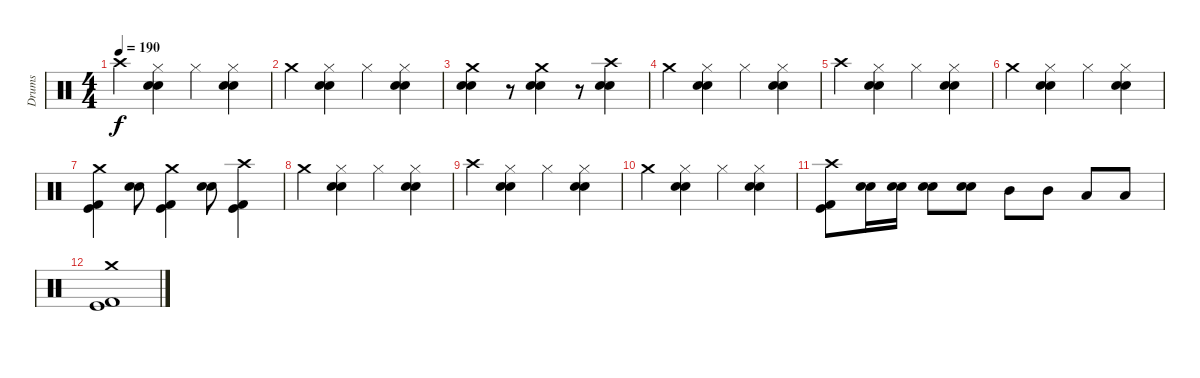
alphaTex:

\track ("Drums" "Drums") {instrument percussion}
\staff {score}
\articulation defaults
\ts (4 4)
\tempo 190
\clef neutral
\ks c "Crash high (hit)".4{dy f}
("Hi-Hat (closed)" "Electric Snare (hit)" "Snare (hit) 2").4 "Hi-Hat (closed)".4 ("Hi-Hat (closed)" "Electric Snare (hit)" "Snare (hit) 2").4 |
"Crash medium (hit)".4 ("Hi-Hat (closed)" "Electric Snare (hit)" "Snare (hit) 2").4 "Hi-Hat (closed)".4 ("Hi-Hat (closed)" "Electric Snare (hit)" "Snare (hit) 2").4 |
("Crash medium (hit)" "Electric Snare (hit)" "Snare (hit) 2").4 r.8 ("Crash medium (hit)" "Electric Snare (hit)" "Snare (hit) 2").4 r.8 ("Crash high (hit)" "Electric Snare (hit)" "Snare (hit) 2").4 |
"Crash medium (hit)".4 ("Hi-Hat (closed)" "Electric Snare (hit)" "Snare (hit) 2").4 "Hi-Hat (closed)".4 ("Hi-Hat (closed)" "Electric Snare (hit)" "Snare (hit) 2").4 |
"Crash high (hit)".4 ("Hi-Hat (closed)" "Electric Snare (hit)" "Snare (hit) 2").4 "Hi-Hat (closed)".4 ("Hi-Hat (closed)" "Electric Snare (hit)" "Snare (hit) 2").4 |
"Crash medium (hit)".4 ("Hi-Hat (closed)" "Electric Snare (hit)" "Snare (hit) 2").4 "Hi-Hat (closed)".4 ("Hi-Hat (closed)" "Electric Snare (hit)" "Snare (hit) 2").4 |
("Crash medium (hit)" "Kick (hit) 2" "Kick (hit)").4 ("Electric Snare (hit)" "Snare (hit) 2").8 ("Crash medium (hit)" "Kick (hit) 2" "Kick (hit)").4 ("Electric Snare (hit)" "Snare (hit) 2").8 ("Crash high (hit)" "Kick (hit) 2" "Kick (hit)").4 |
"Crash medium (hit)".4 ("Hi-Hat (closed)" "Electric Snare (hit)" "Snare (hit) 2").4 "Hi-Hat (closed)".4 ("Hi-Hat (closed)" "Electric Snare (hit)" "Snare (hit) 2").4 |
"Crash high (hit)".4 ("Hi-Hat (closed)" "Electric Snare (hit)" "Snare (hit) 2").4 "Hi-Hat (closed)".4 ("Hi-Hat (closed)" "Electric Snare (hit)" "Snare (hit) 2").4 |
"Crash medium (hit)".4 ("Hi-Hat (closed)" "Electric Snare (hit)" "Snare (hit) 2").4 "Hi-Hat (closed)".4 ("Hi-Hat (closed)" "Electric Snare (hit)" "Snare (hit) 2").4 |
("Kick (hit) 2" "Kick (hit)" "Crash high (hit)").8 ("Electric Snare (hit)" "Snare (hit) 2").16 ("Electric Snare (hit)" "Snare (hit) 2").16 ("Electric Snare (hit)" "Snare (hit) 2").8 ("Electric Snare (hit)" "Snare (hit) 2").8 "Mid Tom (hit)".8 "Mid Tom (hit)".8 "Low Tom (hit)".8 "Low Tom (hit)".8 |
("Kick (hit) 2" "Kick (hit)" "Crash medium (hit)").1
